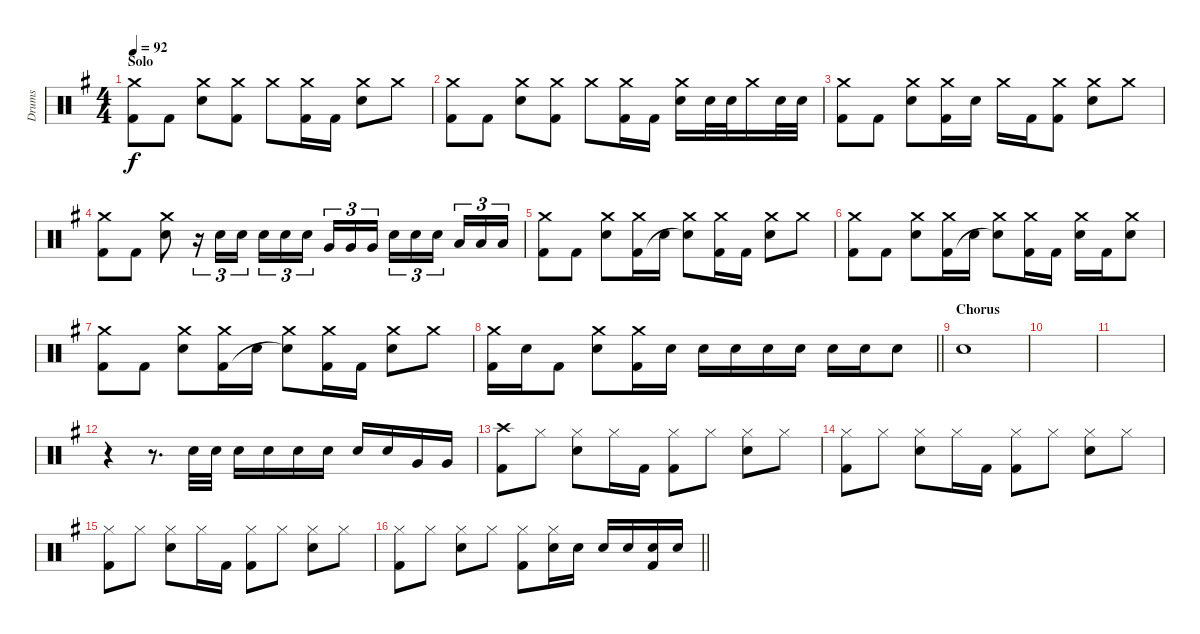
\track ("Drums" "Drums") {instrument percussion}
\staff {score}
\articulation defaults
\ts (4 4)
\section ("" "Solo")
\tempo 92
\clef neutral
\ks eminor
("Crash medium (hit)" "Kick (hit) 2").8{dy f} "Kick (hit) 2".8 ("Crash medium (hit)" "Electric Snare (hit)").8 ("Crash medium (hit)" "Kick (hit) 2").8 "Crash medium (hit)".8 ("Crash medium (hit)" "Kick (hit) 2").16 "Kick (hit) 2".16 ("Crash medium (hit)" "Electric Snare (hit)").8 "Crash medium (hit)".8 |
("Crash medium (hit)" "Kick (hit) 2").8 "Kick (hit) 2".8 ("Crash medium (hit)" "Electric Snare (hit)").8 ("Crash medium (hit)" "Kick (hit) 2").8 "Crash medium (hit)".8 ("Crash medium (hit)" "Kick (hit) 2").16 "Kick (hit) 2".16 ("Crash medium (hit)" "Electric Snare (hit)").16 "Electric Snare (hit)".32 "Electric Snare (hit)".32 "Crash medium (hit)".16 "Electric Snare (hit)".32 "Electric Snare (hit)".32 |
("Crash medium (hit)" "Kick (hit) 2").8 "Kick (hit) 2".8 ("Crash medium (hit)" "Electric Snare (hit)").8 ("Crash medium (hit)" "Kick (hit) 2").16 "Electric Snare (hit)".16 "Crash medium (hit)".16 "Kick (hit) 2".16 ("Crash medium (hit)" "Kick (hit) 2").8 ("Crash medium (hit)" "Electric Snare (hit)").8 "Crash medium (hit)".8 |
("Crash medium (hit)" "Kick (hit) 2").8 "Kick (hit) 2".8 ("Crash medium (hit)" "Electric Snare (hit)").8 r.16{tu (3 2)} "Electric Snare (hit)".16{tu (3 2)} "Electric Snare (hit)".16{tu (3 2)} "Electric Snare (hit)".16{tu (3 2)} "Electric Snare (hit)".16{tu (3 2)} "Electric Snare (hit)".16{tu (3 2) beam splitsecondary} "Very Low Tom (hit)".16{tu (3 2)} "Very Low Tom (hit)".16{tu (3 2)} "Very Low Tom (hit)".16{tu (3 2)} "Electric Snare (hit)".16{tu (3 2)} "Electric Snare (hit)".16{tu (3 2)} "Electric Snare (hit)".16{tu (3 2) beam splitsecondary} "Low Floor Tom (hit)".16{tu (3 2)} "Low Floor Tom (hit)".16{tu (3 2)} "Low Floor Tom (hit)".16{tu (3 2)} |
("Crash medium (hit)" "Kick (hit) 2").8 "Kick (hit) 2".8 ("Crash medium (hit)" "Electric Snare (hit)").8 ("Crash medium (hit)" "Kick (hit) 2").16 "Electric Snare (hit)".16 ("Crash medium (hit)" "Snare (hit)"{t}).8 ("Crash medium (hit)" "Kick (hit) 2").16 "Kick (hit) 2".16 ("Crash medium (hit)" "Electric Snare (hit)").8 "Crash medium (hit)".8 |
("Crash medium (hit)" "Kick (hit) 2").8 "Kick (hit) 2".8 ("Crash medium (hit)" "Electric Snare (hit)").8 ("Crash medium (hit)" "Kick (hit) 2").16 "Electric Snare (hit)".16 ("Crash medium (hit)" "Snare (hit)"{t}).8 ("Crash medium (hit)" "Kick (hit) 2").16 "Kick (hit) 2".16 ("Crash medium (hit)" "Electric Snare (hit)").16 "Kick (hit) 2".16 ("Crash medium (hit)" "Electric Snare (hit)").8 |
("Crash medium (hit)" "Kick (hit) 2").8 "Kick (hit) 2".8 ("Crash medium (hit)" "Electric Snare (hit)").8 ("Crash medium (hit)" "Kick (hit) 2").16 "Electric Snare (hit)".16 ("Crash medium (hit)" "Snare (hit)"{t}).8 ("Crash medium (hit)" "Kick (hit) 2").16 "Kick (hit) 2".16 ("Crash medium (hit)" "Electric Snare (hit)").8 "Crash medium (hit)".8 |
\barLineRight lightlight
("Crash medium (hit)" "Kick (hit) 2").16 "Electric Snare (hit)".16 "Kick (hit) 2".8 ("Crash medium (hit)" "Electric Snare (hit)").8 ("Crash medium (hit)" "Kick (hit) 2").16 "Electric Snare (hit)".16 "Electric Snare (hit)".16 "Electric Snare (hit)".16 "Electric Snare (hit)".16 "Electric Snare (hit)".16 "Electric Snare (hit)".16 "Electric Snare (hit)".16 "Electric Snare (hit)".8 |
\section ("" "Chorus")
"Electric Snare (hit)".1 |
|
|
r.4 r.8{d} "Electric Snare (hit)".32 "Electric Snare (hit)".32 "Electric Snare (hit)".16 "Electric Snare (hit)".16 "Electric Snare (hit)".16 "Electric Snare (hit)".16 "Electric Snare (hit)".16 "Electric Snare (hit)".16 "Very Low Tom (hit)".16 "Very Low Tom (hit)".16 |
("Crash high (hit)" "Kick (hit) 2").8 "Hi-Hat (closed)".8 ("Hi-Hat (closed)" "Electric Snare (hit)").8 "Hi-Hat (closed)".16 "Kick (hit) 2".16 ("Hi-Hat (closed)" "Kick (hit) 2").8 "Hi-Hat (closed)".8 ("Hi-Hat (closed)" "Electric Snare (hit)").8 "Hi-Hat (closed)".8 |
("Hi-Hat (closed)" "Kick (hit) 2").8 "Hi-Hat (closed)".8 ("Hi-Hat (closed)" "Electric Snare (hit)").8 "Hi-Hat (closed)".16 "Kick (hit) 2".16 ("Hi-Hat (closed)" "Kick (hit) 2").8 "Hi-Hat (closed)".8 ("Hi-Hat (closed)" "Electric Snare (hit)").8 "Hi-Hat (closed)".8 |
("Hi-Hat (closed)" "Kick (hit) 2").8 "Hi-Hat (closed)".8 ("Hi-Hat (closed)" "Electric Snare (hit)").8 "Hi-Hat (closed)".16 "Kick (hit) 2".16 ("Hi-Hat (closed)" "Kick (hit) 2").8 "Hi-Hat (closed)".8 ("Hi-Hat (closed)" "Electric Snare (hit)").8 "Hi-Hat (closed)".8 |
\barLineRight lightlight
("Hi-Hat (closed)" "Kick (hit) 2").8 "Hi-Hat (closed)".8 ("Hi-Hat (closed)" "Electric Snare (hit)").8 "Hi-Hat (closed)".8 ("Hi-Hat (closed)" "Kick (hit) 2").8 ("Hi-Hat (closed)" "Electric Snare (hit)").16 "Electric Snare (hit)".16 "Electric Snare (hit)".16 "Electric Snare (hit)".16 ("Electric Snare (hit)" "Kick (hit) 2").16 "Electric Snare (hit)".16
